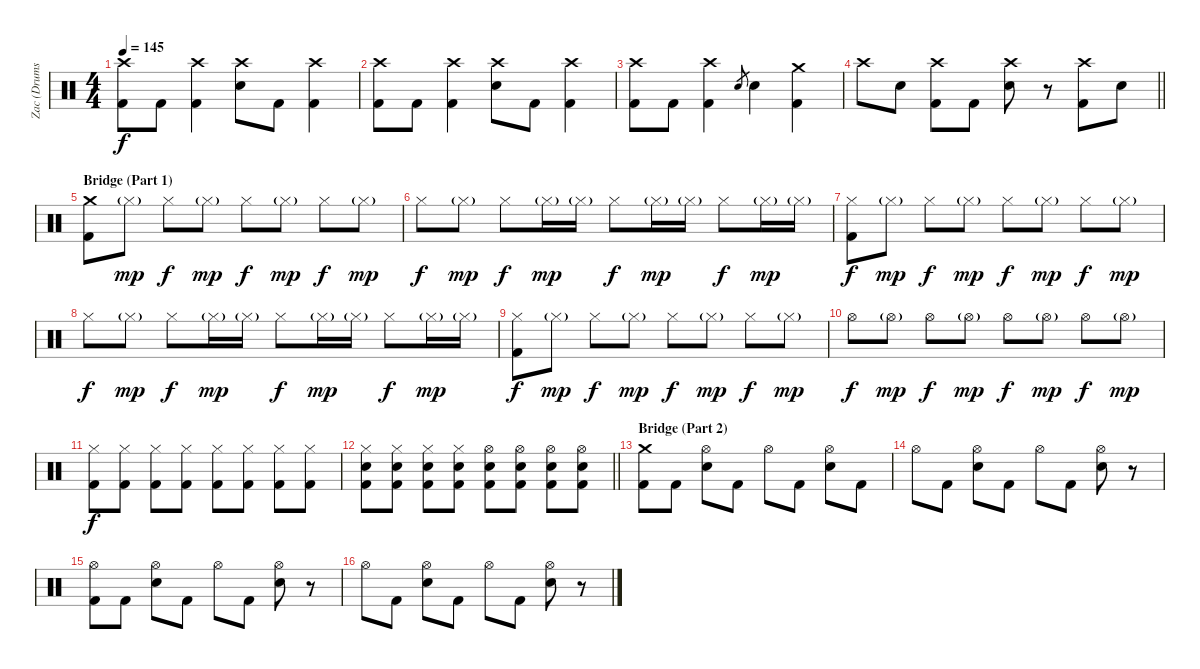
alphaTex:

\track ("Zac (Drums)" "Zac (Drums") {instrument percussion}
\staff {score}
\articulation defaults
\ts (4 4)
\tempo 145
\clef neutral
\ks c
("Crash high (hit)" "Kick (hit) 2").8{dy f} "Kick (hit) 2".8 ("Crash high (hit)" "Kick (hit) 2").4 ("Crash high (hit)" "Electric Snare (hit)").8 "Kick (hit) 2".8 ("Crash high (hit)" "Kick (hit) 2").4 |
("Crash high (hit)" "Kick (hit) 2").8 "Kick (hit) 2".8 ("Crash high (hit)" "Kick (hit) 2").4 ("Crash high (hit)" "Electric Snare (hit)").8 "Kick (hit) 2".8 ("Crash high (hit)" "Kick (hit) 2").4 |
("Crash high (hit)" "Kick (hit) 2").8 "Kick (hit) 2".8 ("Crash high (hit)" "Kick (hit) 2").4 "Electric Snare (hit)".8{gr} "Electric Snare (hit)".4 ("Crash medium (hit)" "Kick (hit) 2").4 |
\barLineRight lightlight "Crash high (hit)".8 "Electric Snare (hit)".8
("Crash high (hit)" "Kick (hit) 2").8 "Kick (hit) 2".8 ("Crash high (hit)" "Electric Snare (hit)").8 r.8 ("Crash high (hit)" "Kick (hit) 2").8 "Electric Snare (hit)".8 |
\section ("" "Bridge (Part 1)")
("Crash medium (hit)" "Kick (hit) 2").8 "Hi-Hat (closed)"{g}.8{dy mp} "Hi-Hat (closed)".8{dy f} "Hi-Hat (closed)"{g}.8{dy mp} "Hi-Hat (closed)".8{dy f} "Hi-Hat (closed)"{g}.8{dy mp} "Hi-Hat (closed)".8{dy f} "Hi-Hat (closed)"{g}.8{dy mp} |
"Hi-Hat (closed)".8{dy f} "Hi-Hat (closed)"{g}.8{dy mp} "Hi-Hat (closed)".8{dy f} "Hi-Hat (closed)"{g}.16{dy mp} "Hi-Hat (closed)"{g}.16 "Hi-Hat (closed)".8{dy f} "Hi-Hat (closed)"{g}.16{dy mp} "Hi-Hat (closed)"{g}.16 "Hi-Hat (closed)".8{dy f} "Hi-Hat (closed)"{g}.16{dy mp} "Hi-Hat (closed)"{g}.16 |
("Hi-Hat (closed)" "Kick (hit) 2").8{dy f} "Hi-Hat (closed)"{g}.8{dy mp} "Hi-Hat (closed)".8{dy f} "Hi-Hat (closed)"{g}.8{dy mp} "Hi-Hat (closed)".8{dy f} "Hi-Hat (closed)"{g}.8{dy mp} "Hi-Hat (closed)".8{dy f} "Hi-Hat (closed)"{g}.8{dy mp} |
"Hi-Hat (closed)".8{dy f} "Hi-Hat (closed)"{g}.8{dy mp} "Hi-Hat (closed)".8{dy f} "Hi-Hat (closed)"{g}.16{dy mp} "Hi-Hat (closed)"{g}.16 "Hi-Hat (closed)".8{dy f} "Hi-Hat (closed)"{g}.16{dy mp} "Hi-Hat (closed)"{g}.16 "Hi-Hat (closed)".8{dy f} "Hi-Hat (closed)"{g}.16{dy mp} "Hi-Hat (closed)"{g}.16 |
("Hi-Hat (closed)" "Kick (hit) 2").8{dy f} "Hi-Hat (closed)"{g}.8{dy mp} "Hi-Hat (closed)".8{dy f} "Hi-Hat (closed)"{g}.8{dy mp} "Hi-Hat (closed)".8{dy f} "Hi-Hat (closed)"{g}.8{dy mp} "Hi-Hat (closed)".8{dy f} "Hi-Hat (closed)"{g}.8{dy mp} |
"Hi-Hat (open)".8{dy f} "Hi-Hat (open)"{g}.8{dy mp} "Hi-Hat (open)".8{dy f} "Hi-Hat (open)"{g}.8{dy mp} "Hi-Hat (open)".8{dy f} "Hi-Hat (open)"{g}.8{dy mp} "Hi-Hat (open)".8{dy f} "Hi-Hat (open)"{g}.8{dy mp} |
("Hi-Hat (closed)" "Kick (hit) 2").8{dy f} ("Hi-Hat (closed)" "Kick (hit) 2").8 ("Hi-Hat (closed)" "Kick (hit) 2").8 ("Hi-Hat (closed)" "Kick (hit) 2").8 ("Hi-Hat (closed)" "Kick (hit) 2").8 ("Hi-Hat (closed)" "Kick (hit) 2").8 ("Hi-Hat (closed)" "Kick (hit) 2").8 ("Hi-Hat (closed)" "Kick (hit) 2").8 |
\barLineRight lightlight
("Hi-Hat (closed)" "Electric Snare (hit)" "Kick (hit) 2").8 ("Hi-Hat (closed)" "Electric Snare (hit)" "Kick (hit) 2").8 ("Hi-Hat (closed)" "Electric Snare (hit)" "Kick (hit) 2").8 ("Hi-Hat (closed)" "Electric Snare (hit)" "Kick (hit) 2").8 ("Hi-Hat (open)" "Electric Snare (hit)" "Kick (hit) 2").8 ("Hi-Hat (open)" "Electric Snare (hit)" "Kick (hit) 2").8 ("Hi-Hat (open)" "Electric Snare (hit)" "Kick (hit) 2").8 ("Hi-Hat (open)" "Electric Snare (hit)" "Kick (hit) 2").8 |
\section ("" "Bridge (Part 2)")
("Crash medium (hit)" "Kick (hit) 2").8 "Kick (hit) 2".8 ("Hi-Hat (open)" "Electric Snare (hit)").8 "Kick (hit) 2".8 "Hi-Hat (open)".8 "Kick (hit) 2".8 ("Hi-Hat (open)" "Electric Snare (hit)").8 "Kick (hit) 2".8 |
"Hi-Hat (open)".8 "Kick (hit) 2".8 ("Hi-Hat (open)" "Electric Snare (hit)").8 "Kick (hit) 2".8 "Hi-Hat (open)".8 "Kick (hit) 2".8 ("Hi-Hat (open)" "Electric Snare (hit)").8 r.8 |
("Hi-Hat (open)" "Kick (hit) 2").8 "Kick (hit) 2".8 ("Hi-Hat (open)" "Electric Snare (hit)").8 "Kick (hit) 2".8 "Hi-Hat (open)".8 "Kick (hit) 2".8 ("Hi-Hat (open)" "Electric Snare (hit)").8 r.8 |
"Hi-Hat (open)".8 "Kick (hit) 2".8 ("Hi-Hat (open)" "Electric Snare (hit)").8 "Kick (hit) 2".8 "Hi-Hat (open)".8 "Kick (hit) 2".8 ("Hi-Hat (open)" "Electric Snare (hit)").8 r.8
